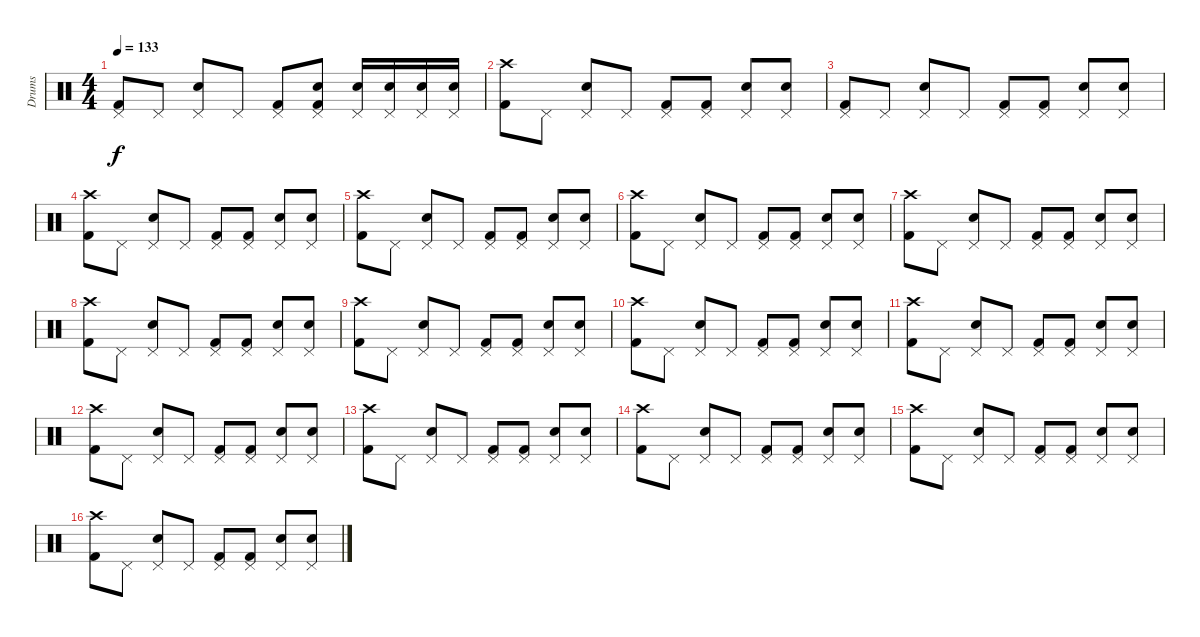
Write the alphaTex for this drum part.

\track ("Drums" "Drums") {instrument percussion}
\staff {score}
\articulation defaults
\ts (4 4)
\tempo 133
\clef neutral
\ks c
("Pedal Hi-Hat (hit)" "Kick (hit) 2").8{dy f} "Pedal Hi-Hat (hit)".8 ("Pedal Hi-Hat (hit)" "Snare (hit) 2").8 "Pedal Hi-Hat (hit)".8 ("Pedal Hi-Hat (hit)" "Kick (hit) 2").8 ("Pedal Hi-Hat (hit)" "Snare (hit) 2" "Kick (hit) 2").8 ("Pedal Hi-Hat (hit)" "Snare (hit) 2").16 ("Pedal Hi-Hat (hit)" "Snare (hit) 2").16 ("Pedal Hi-Hat (hit)" "Snare (hit) 2").16 ("Pedal Hi-Hat (hit)" "Snare (hit) 2").16 |
("Crash high (hit)" "Kick (hit) 2").8 "Pedal Hi-Hat (hit)".8 ("Pedal Hi-Hat (hit)" "Snare (hit) 2").8 "Pedal Hi-Hat (hit)".8 ("Pedal Hi-Hat (hit)" "Kick (hit) 2").8 ("Pedal Hi-Hat (hit)" "Kick (hit) 2").8 ("Pedal Hi-Hat (hit)" "Snare (hit) 2").8 ("Pedal Hi-Hat (hit)" "Snare (hit) 2").8 |
("Pedal Hi-Hat (hit)" "Kick (hit) 2").8 "Pedal Hi-Hat (hit)".8 ("Pedal Hi-Hat (hit)" "Snare (hit) 2").8 "Pedal Hi-Hat (hit)".8 ("Pedal Hi-Hat (hit)" "Kick (hit) 2").8 ("Pedal Hi-Hat (hit)" "Kick (hit) 2").8 ("Pedal Hi-Hat (hit)" "Snare (hit) 2").8 ("Pedal Hi-Hat (hit)" "Snare (hit) 2").8 |
("Crash high (hit)" "Kick (hit) 2").8 "Pedal Hi-Hat (hit)".8 ("Pedal Hi-Hat (hit)" "Snare (hit) 2").8 "Pedal Hi-Hat (hit)".8 ("Pedal Hi-Hat (hit)" "Kick (hit) 2").8 ("Pedal Hi-Hat (hit)" "Kick (hit) 2").8 ("Pedal Hi-Hat (hit)" "Snare (hit) 2").8 ("Pedal Hi-Hat (hit)" "Snare (hit) 2").8 |
("Crash high (hit)" "Kick (hit) 2").8 "Pedal Hi-Hat (hit)".8 ("Pedal Hi-Hat (hit)" "Snare (hit) 2").8 "Pedal Hi-Hat (hit)".8 ("Pedal Hi-Hat (hit)" "Kick (hit) 2").8 ("Pedal Hi-Hat (hit)" "Kick (hit) 2").8 ("Pedal Hi-Hat (hit)" "Snare (hit) 2").8 ("Pedal Hi-Hat (hit)" "Snare (hit) 2").8 |
("Crash high (hit)" "Kick (hit) 2").8 "Pedal Hi-Hat (hit)".8 ("Pedal Hi-Hat (hit)" "Snare (hit) 2").8 "Pedal Hi-Hat (hit)".8 ("Pedal Hi-Hat (hit)" "Kick (hit) 2").8 ("Pedal Hi-Hat (hit)" "Kick (hit) 2").8 ("Pedal Hi-Hat (hit)" "Snare (hit) 2").8 ("Pedal Hi-Hat (hit)" "Snare (hit) 2").8 |
("Crash high (hit)" "Kick (hit) 2").8 "Pedal Hi-Hat (hit)".8 ("Pedal Hi-Hat (hit)" "Snare (hit) 2").8 "Pedal Hi-Hat (hit)".8 ("Pedal Hi-Hat (hit)" "Kick (hit) 2").8 ("Pedal Hi-Hat (hit)" "Kick (hit) 2").8 ("Pedal Hi-Hat (hit)" "Snare (hit) 2").8 ("Pedal Hi-Hat (hit)" "Snare (hit) 2").8 |
("Crash high (hit)" "Kick (hit) 2").8 "Pedal Hi-Hat (hit)".8 ("Pedal Hi-Hat (hit)" "Snare (hit) 2").8 "Pedal Hi-Hat (hit)".8 ("Pedal Hi-Hat (hit)" "Kick (hit) 2").8 ("Pedal Hi-Hat (hit)" "Kick (hit) 2").8 ("Pedal Hi-Hat (hit)" "Snare (hit) 2").8 ("Pedal Hi-Hat (hit)" "Snare (hit) 2").8 |
("Crash high (hit)" "Kick (hit) 2").8 "Pedal Hi-Hat (hit)".8 ("Pedal Hi-Hat (hit)" "Snare (hit) 2").8 "Pedal Hi-Hat (hit)".8 ("Pedal Hi-Hat (hit)" "Kick (hit) 2").8 ("Pedal Hi-Hat (hit)" "Kick (hit) 2").8 ("Pedal Hi-Hat (hit)" "Snare (hit) 2").8 ("Pedal Hi-Hat (hit)" "Snare (hit) 2").8 |
("Crash high (hit)" "Kick (hit) 2").8 "Pedal Hi-Hat (hit)".8 ("Pedal Hi-Hat (hit)" "Snare (hit) 2").8 "Pedal Hi-Hat (hit)".8 ("Pedal Hi-Hat (hit)" "Kick (hit) 2").8 ("Pedal Hi-Hat (hit)" "Kick (hit) 2").8 ("Pedal Hi-Hat (hit)" "Snare (hit) 2").8 ("Pedal Hi-Hat (hit)" "Snare (hit) 2").8 |
("Crash high (hit)" "Kick (hit) 2").8 "Pedal Hi-Hat (hit)".8 ("Pedal Hi-Hat (hit)" "Snare (hit) 2").8 "Pedal Hi-Hat (hit)".8 ("Pedal Hi-Hat (hit)" "Kick (hit) 2").8 ("Pedal Hi-Hat (hit)" "Kick (hit) 2").8 ("Pedal Hi-Hat (hit)" "Snare (hit) 2").8 ("Pedal Hi-Hat (hit)" "Snare (hit) 2").8 |
("Crash high (hit)" "Kick (hit) 2").8 "Pedal Hi-Hat (hit)".8 ("Pedal Hi-Hat (hit)" "Snare (hit) 2").8 "Pedal Hi-Hat (hit)".8 ("Pedal Hi-Hat (hit)" "Kick (hit) 2").8 ("Pedal Hi-Hat (hit)" "Kick (hit) 2").8 ("Pedal Hi-Hat (hit)" "Snare (hit) 2").8 ("Pedal Hi-Hat (hit)" "Snare (hit) 2").8 |
("Crash high (hit)" "Kick (hit) 2").8 "Pedal Hi-Hat (hit)".8 ("Pedal Hi-Hat (hit)" "Snare (hit) 2").8 "Pedal Hi-Hat (hit)".8 ("Pedal Hi-Hat (hit)" "Kick (hit) 2").8 ("Pedal Hi-Hat (hit)" "Kick (hit) 2").8 ("Pedal Hi-Hat (hit)" "Snare (hit) 2").8 ("Pedal Hi-Hat (hit)" "Snare (hit) 2").8 |
("Crash high (hit)" "Kick (hit) 2").8 "Pedal Hi-Hat (hit)".8 ("Pedal Hi-Hat (hit)" "Snare (hit) 2").8 "Pedal Hi-Hat (hit)".8 ("Pedal Hi-Hat (hit)" "Kick (hit) 2").8 ("Pedal Hi-Hat (hit)" "Kick (hit) 2").8 ("Pedal Hi-Hat (hit)" "Snare (hit) 2").8 ("Pedal Hi-Hat (hit)" "Snare (hit) 2").8 |
("Crash high (hit)" "Kick (hit) 2").8 "Pedal Hi-Hat (hit)".8 ("Pedal Hi-Hat (hit)" "Snare (hit) 2").8 "Pedal Hi-Hat (hit)".8 ("Pedal Hi-Hat (hit)" "Kick (hit) 2").8 ("Pedal Hi-Hat (hit)" "Kick (hit) 2").8 ("Pedal Hi-Hat (hit)" "Snare (hit) 2").8 ("Pedal Hi-Hat (hit)" "Snare (hit) 2").8 |
("Crash high (hit)" "Kick (hit) 2").8 "Pedal Hi-Hat (hit)".8 ("Pedal Hi-Hat (hit)" "Snare (hit) 2").8 "Pedal Hi-Hat (hit)".8 ("Pedal Hi-Hat (hit)" "Kick (hit) 2").8 ("Pedal Hi-Hat (hit)" "Kick (hit) 2").8 ("Pedal Hi-Hat (hit)" "Snare (hit) 2").8 ("Pedal Hi-Hat (hit)" "Snare (hit) 2").8
